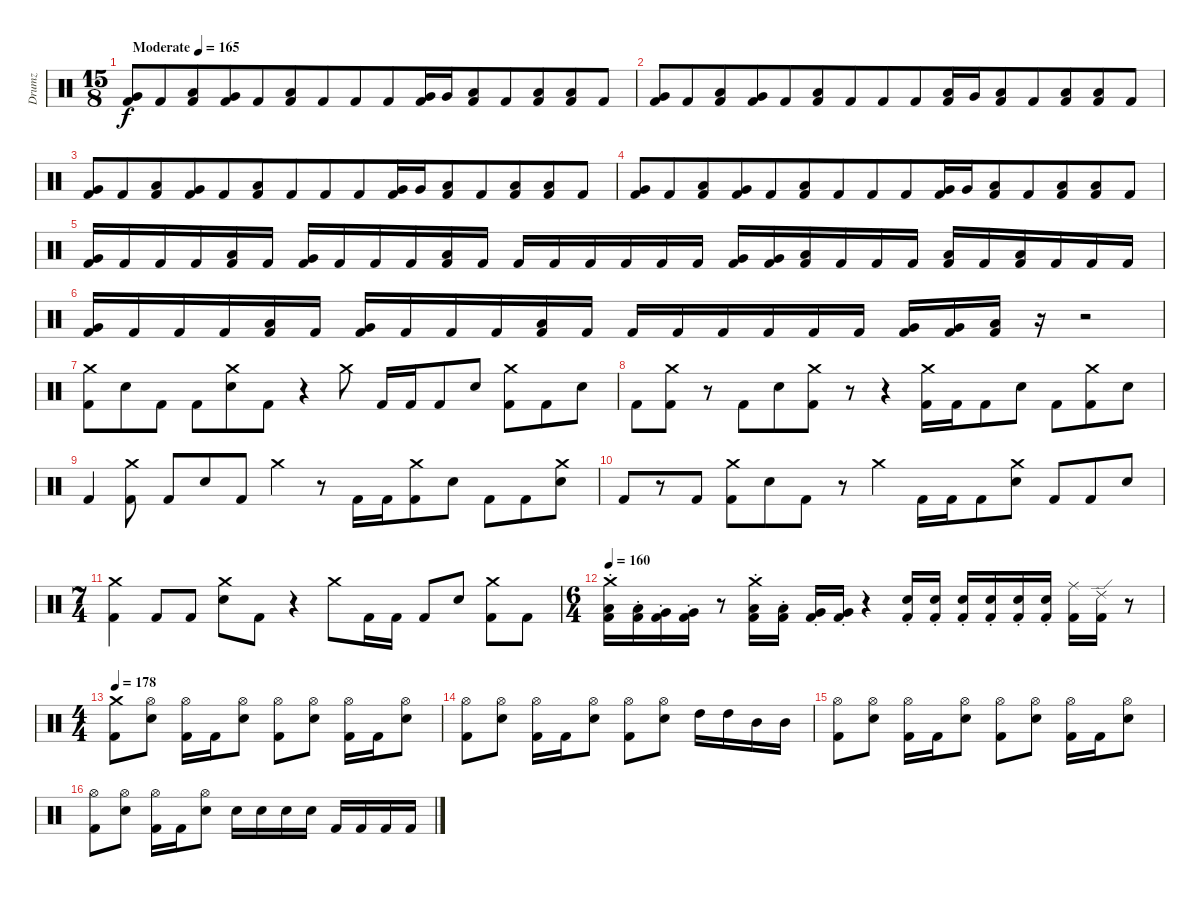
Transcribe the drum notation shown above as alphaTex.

\track ("Drumz" "Drumz") {instrument percussion}
\staff {score}
\articulation defaults
\ts (15 8)
\tempo (165 "Moderate")
\clef neutral
\ks c
("Very Low Tom (hit)" "Kick (hit) 2").8{dy f beam merge} "Kick (hit) 2".8{beam merge} ("Low Tom (hit)" "Kick (hit) 2").8{beam merge} ("Very Low Tom (hit)" "Kick (hit) 2").8{beam merge} "Kick (hit) 2".8{beam merge} ("Low Tom (hit)" "Kick (hit) 2").8{beam merge} "Kick (hit) 2".8{beam merge} "Kick (hit) 2".8{beam merge} "Kick (hit) 2".8{beam merge} ("Very Low Tom (hit)" "Kick (hit) 2").16 "Very Low Tom (hit)".16{beam merge} ("Low Tom (hit)" "Kick (hit) 2").8{beam merge} "Kick (hit) 2".8{beam merge} ("Low Tom (hit)" "Kick (hit) 2").8{beam merge} ("Low Tom (hit)" "Kick (hit) 2").8 "Kick (hit) 2".8 |
("Very Low Tom (hit)" "Kick (hit) 2").8{beam merge} "Kick (hit) 2".8{beam merge} ("Low Tom (hit)" "Kick (hit) 2").8{beam merge} ("Very Low Tom (hit)" "Kick (hit) 2").8{beam merge} "Kick (hit) 2".8{beam merge} ("Low Tom (hit)" "Kick (hit) 2").8{beam merge} "Kick (hit) 2".8{beam merge} "Kick (hit) 2".8{beam merge} "Kick (hit) 2".8{beam merge} ("Low Tom (hit)" "Kick (hit) 2").16{beam merge} "Very Low Tom (hit)".16{beam merge} ("Low Tom (hit)" "Kick (hit) 2").8{beam merge} "Kick (hit) 2".8{beam merge} ("Low Tom (hit)" "Kick (hit) 2").8{beam merge} ("Low Tom (hit)" "Kick (hit) 2").8 "Kick (hit) 2".8 |
("Very Low Tom (hit)" "Kick (hit) 2").8{beam merge} "Kick (hit) 2".8{beam merge} ("Low Tom (hit)" "Kick (hit) 2").8{beam merge} ("Very Low Tom (hit)" "Kick (hit) 2").8{beam merge} "Kick (hit) 2".8{beam merge} ("Low Tom (hit)" "Kick (hit) 2").8{beam merge} "Kick (hit) 2".8{beam merge} "Kick (hit) 2".8{beam merge} "Kick (hit) 2".8{beam merge} ("Very Low Tom (hit)" "Kick (hit) 2").16 "Very Low Tom (hit)".16{beam merge} ("Low Tom (hit)" "Kick (hit) 2").8{beam merge} "Kick (hit) 2".8{beam merge} ("Low Tom (hit)" "Kick (hit) 2").8{beam merge} ("Low Tom (hit)" "Kick (hit) 2").8 "Kick (hit) 2".8 |
("Very Low Tom (hit)" "Kick (hit) 2").8{beam merge} "Kick (hit) 2".8{beam merge} ("Low Tom (hit)" "Kick (hit) 2").8{beam merge} ("Very Low Tom (hit)" "Kick (hit) 2").8{beam merge} "Kick (hit) 2".8{beam merge} ("Low Tom (hit)" "Kick (hit) 2").8{beam merge} "Kick (hit) 2".8{beam merge} "Kick (hit) 2".8{beam merge} "Kick (hit) 2".8{beam merge} ("Very Low Tom (hit)" "Kick (hit) 2").16 "Very Low Tom (hit)".16{beam merge} ("Low Tom (hit)" "Kick (hit) 2").8{beam merge} "Kick (hit) 2".8{beam merge} ("Low Tom (hit)" "Kick (hit) 2").8{beam merge} ("Low Tom (hit)" "Kick (hit) 2").8 "Kick (hit) 2".8 |
("Very Low Tom (hit)" "Kick (hit) 2").16 "Kick (hit) 2".16 "Kick (hit) 2".16 "Kick (hit) 2".16 ("Low Tom (hit)" "Kick (hit) 2").16 "Kick (hit) 2".16 ("Very Low Tom (hit)" "Kick (hit) 2").16 "Kick (hit) 2".16 "Kick (hit) 2".16 "Kick (hit) 2".16 ("Low Tom (hit)" "Kick (hit) 2").16 "Kick (hit) 2".16 "Kick (hit) 2".16 "Kick (hit) 2".16 "Kick (hit) 2".16 "Kick (hit) 2".16 "Kick (hit) 2".16 "Kick (hit) 2".16 ("Very Low Tom (hit)" "Kick (hit) 2").16 ("Very Low Tom (hit)" "Kick (hit) 2").16 ("Low Tom (hit)" "Kick (hit) 2").16 "Kick (hit) 2".16 "Kick (hit) 2".16 "Kick (hit) 2".16 ("Low Tom (hit)" "Kick (hit) 2").16 "Kick (hit) 2".16 ("Low Tom (hit)" "Kick (hit) 2").16 "Kick (hit) 2".16 "Kick (hit) 2".16 "Kick (hit) 2".16 |
("Very Low Tom (hit)" "Kick (hit) 2").16 "Kick (hit) 2".16 "Kick (hit) 2".16 "Kick (hit) 2".16 ("Low Tom (hit)" "Kick (hit) 2").16 "Kick (hit) 2".16 ("Very Low Tom (hit)" "Kick (hit) 2").16 "Kick (hit) 2".16 "Kick (hit) 2".16 "Kick (hit) 2".16 ("Low Tom (hit)" "Kick (hit) 2").16 "Kick (hit) 2".16 "Kick (hit) 2".16 "Kick (hit) 2".16 "Kick (hit) 2".16 "Kick (hit) 2".16 "Kick (hit) 2".16 "Kick (hit) 2".16 ("Very Low Tom (hit)" "Kick (hit) 2").16 ("Very Low Tom (hit)" "Kick (hit) 2").16 ("Low Tom (hit)" "Kick (hit) 2").16 r.16 r.2 |
("Crash medium (hit)" "Kick (hit) 2").8 "Electric Snare (hit)".8 "Kick (hit) 2".8 "Kick (hit) 2".8 ("Crash medium (hit)" "Electric Snare (hit)").8 "Kick (hit) 2".8 r.4 "Crash medium (hit)".8 "Kick (hit) 2".16 "Kick (hit) 2".16 "Kick (hit) 2".8 "Electric Snare (hit)".8 ("Crash medium (hit)" "Kick (hit) 2").8 "Kick (hit) 2".8 "Electric Snare (hit)".8 |
"Kick (hit) 2".8 ("Crash medium (hit)" "Kick (hit) 2").8 r.8 "Kick (hit) 2".8 "Electric Snare (hit)".8 ("Crash medium (hit)" "Kick (hit) 2").8 r.8 r.4 ("Crash medium (hit)" "Kick (hit) 2").16 "Kick (hit) 2".16 "Kick (hit) 2".8 "Electric Snare (hit)".8 "Kick (hit) 2".8 ("Crash medium (hit)" "Kick (hit) 2").8 "Electric Snare (hit)".8 |
"Kick (hit) 2".4 ("Crash medium (hit)" "Kick (hit) 2").8 "Kick (hit) 2".8 "Electric Snare (hit)".8 "Kick (hit) 2".8 "Crash medium (hit)".4 r.8 "Kick (hit) 2".16 "Kick (hit) 2".16 ("Crash medium (hit)" "Kick (hit) 2").8 "Electric Snare (hit)".8 "Kick (hit) 2".8 "Kick (hit) 2".8 ("Crash medium (hit)" "Electric Snare (hit)").8 |
"Kick (hit) 2".8 r.8 "Kick (hit) 2".8 ("Crash medium (hit)" "Kick (hit) 2").8 "Electric Snare (hit)".8 "Kick (hit) 2".8 r.8 "Crash medium (hit)".4 "Kick (hit) 2".16 "Kick (hit) 2".16 "Kick (hit) 2".8 ("Crash medium (hit)" "Electric Snare (hit)").8 "Kick (hit) 2".8 "Kick (hit) 2".8 "Electric Snare (hit)".8 |
\ts (7 4)
("Crash medium (hit)" "Kick (hit) 2").4 "Kick (hit) 2".8 "Kick (hit) 2".8 ("Crash medium (hit)" "Electric Snare (hit)").8 "Kick (hit) 2".8 r.4 "Crash medium (hit)".8 "Kick (hit) 2".16 "Kick (hit) 2".16 "Kick (hit) 2".8 "Electric Snare (hit)".8 ("Crash medium (hit)" "Kick (hit) 2").8 "Kick (hit) 2".8 |
\ts (6 4)
\tempo 160
("Crash medium (hit)"{st} "Low Tom (hit)"{st} "Kick (hit) 2"{st}).16 ("Low Tom (hit)"{st} "Kick (hit) 2"{st}).16 ("Very Low Tom (hit)"{st} "Kick (hit) 2"{st}).16 ("Very Low Tom (hit)"{st} "Kick (hit) 2"{st}).16 r.8 ("Crash medium (hit)"{st} "Low Tom (hit)"{st} "Kick (hit) 2"{st}).16 ("Low Tom (hit)"{st} "Kick (hit) 2"{st}).16 ("Very Low Tom (hit)"{st} "Kick (hit) 2"{st}).16 ("Very Low Tom (hit)"{st} "Kick (hit) 2"{st}).16 r.4 ("Electric Snare (hit)"{st} "Kick (hit) 2"{st}).16 ("Electric Snare (hit)"{st} "Kick (hit) 2"{st}).16 ("Electric Snare (hit)"{st} "Kick (hit) 2"{st}).16 ("Electric Snare (hit)"{st} "Kick (hit) 2"{st}).16 ("Electric Snare (hit)"{st} "Kick (hit) 2"{st}).16 ("Electric Snare (hit)"{st} "Kick (hit) 2"{st}).16 ("Ride (middle)" "Kick (hit) 2").16 ("Ride (edge) 2" "Kick (hit) 2").16 r.8 |
\ts (4 4)
\tempo 178
("Crash medium (hit)" "Kick (hit) 2").8 ("Hi-Hat (open)" "Electric Snare (hit)").8 ("Hi-Hat (open)" "Kick (hit) 2").16 "Kick (hit) 2".16 ("Hi-Hat (open)" "Electric Snare (hit)").8 ("Hi-Hat (open)" "Kick (hit) 2").8 ("Hi-Hat (open)" "Electric Snare (hit)").8 ("Hi-Hat (open)" "Kick (hit) 2").16 "Kick (hit) 2".16 ("Hi-Hat (open)" "Electric Snare (hit)").8 |
("Hi-Hat (open)" "Kick (hit) 2").8 ("Hi-Hat (open)" "Electric Snare (hit)").8 ("Hi-Hat (open)" "Kick (hit) 2").16 "Kick (hit) 2".16 ("Hi-Hat (open)" "Electric Snare (hit)").8 ("Hi-Hat (open)" "Kick (hit) 2").8 ("Hi-Hat (open)" "Electric Snare (hit)").8 "High Tom (hit)".16 "High Tom (hit)".16 "Mid Tom (hit)".16 "Mid Tom (hit)".16 |
("Hi-Hat (open)" "Kick (hit) 2").8 ("Hi-Hat (open)" "Electric Snare (hit)").8 ("Hi-Hat (open)" "Kick (hit) 2").16 "Kick (hit) 2".16 ("Hi-Hat (open)" "Electric Snare (hit)").8 ("Hi-Hat (open)" "Kick (hit) 2").8 ("Hi-Hat (open)" "Electric Snare (hit)").8 ("Hi-Hat (open)" "Kick (hit) 2").16 "Kick (hit) 2".16 ("Hi-Hat (open)" "Electric Snare (hit)").8 |
("Hi-Hat (open)" "Kick (hit) 2").8 ("Hi-Hat (open)" "Electric Snare (hit)").8 ("Hi-Hat (open)" "Kick (hit) 2").16 "Kick (hit) 2".16 ("Hi-Hat (open)" "Electric Snare (hit)").8 "Electric Snare (hit)".16 "Electric Snare (hit)".16 "Electric Snare (hit)".16 "Electric Snare (hit)".16 "Kick (hit) 2".16 "Kick (hit) 2".16 "Kick (hit) 2".16 "Kick (hit) 2".16
